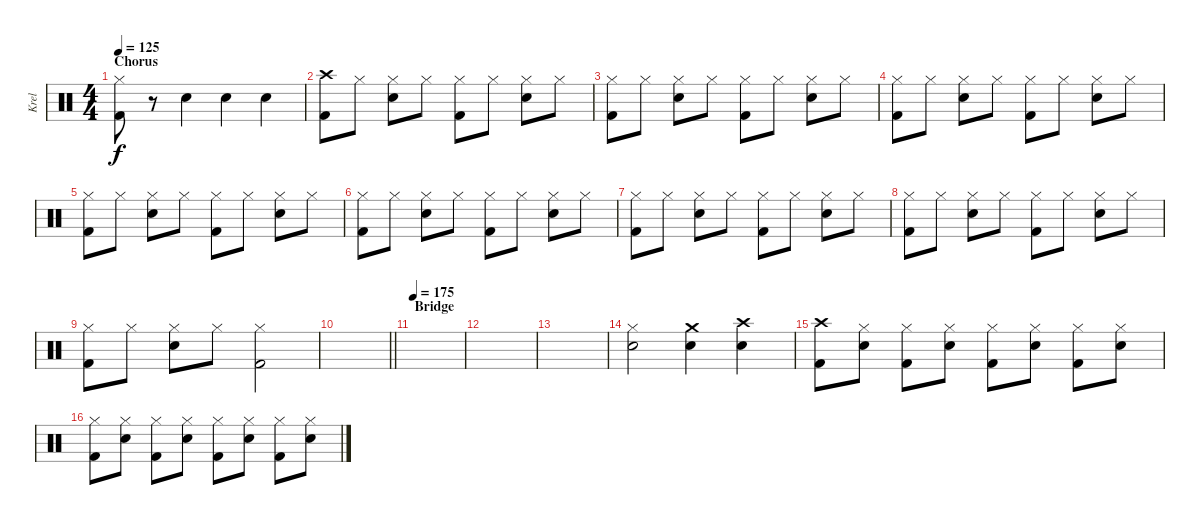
\track ("Krel" "Krel") {instrument percussion}
\staff {score}
\articulation defaults
\ts (4 4)
\section ("" "Chorus")
\tempo 125
\clef neutral
\ks c
("Hi-Hat (closed)" "Kick (hit) 2").8{dy f} r.8 "Snare (hit) 2".4 "Snare (hit) 2".4 "Snare (hit) 2".4 |
("Crash high (hit)" "Kick (hit) 2").8 "Hi-Hat (closed)".8 ("Hi-Hat (closed)" "Snare (hit) 2").8 "Hi-Hat (closed)".8 ("Hi-Hat (closed)" "Kick (hit) 2").8 "Hi-Hat (closed)".8 ("Hi-Hat (closed)" "Snare (hit) 2").8 "Hi-Hat (closed)".8 |
("Hi-Hat (closed)" "Kick (hit) 2").8 "Hi-Hat (closed)".8 ("Hi-Hat (closed)" "Snare (hit) 2").8 "Hi-Hat (closed)".8 ("Hi-Hat (closed)" "Kick (hit) 2").8 "Hi-Hat (closed)".8 ("Hi-Hat (closed)" "Snare (hit) 2").8 "Hi-Hat (closed)".8 |
("Hi-Hat (closed)" "Kick (hit) 2").8 "Hi-Hat (closed)".8 ("Hi-Hat (closed)" "Snare (hit) 2").8 "Hi-Hat (closed)".8 ("Hi-Hat (closed)" "Kick (hit) 2").8 "Hi-Hat (closed)".8 ("Hi-Hat (closed)" "Snare (hit) 2").8 "Hi-Hat (closed)".8 |
("Hi-Hat (closed)" "Kick (hit) 2").8 "Hi-Hat (closed)".8 ("Hi-Hat (closed)" "Snare (hit) 2").8 "Hi-Hat (closed)".8 ("Hi-Hat (closed)" "Kick (hit) 2").8 "Hi-Hat (closed)".8 ("Hi-Hat (closed)" "Snare (hit) 2").8 "Hi-Hat (closed)".8 |
("Hi-Hat (closed)" "Kick (hit) 2").8 "Hi-Hat (closed)".8 ("Hi-Hat (closed)" "Snare (hit) 2").8 "Hi-Hat (closed)".8 ("Hi-Hat (closed)" "Kick (hit) 2").8 "Hi-Hat (closed)".8 ("Hi-Hat (closed)" "Snare (hit) 2").8 "Hi-Hat (closed)".8 |
("Hi-Hat (closed)" "Kick (hit) 2").8 "Hi-Hat (closed)".8 ("Hi-Hat (closed)" "Snare (hit) 2").8 "Hi-Hat (closed)".8 ("Hi-Hat (closed)" "Kick (hit) 2").8 "Hi-Hat (closed)".8 ("Hi-Hat (closed)" "Snare (hit) 2").8 "Hi-Hat (closed)".8 |
("Hi-Hat (closed)" "Kick (hit) 2").8 "Hi-Hat (closed)".8 ("Hi-Hat (closed)" "Snare (hit) 2").8 "Hi-Hat (closed)".8 ("Hi-Hat (closed)" "Kick (hit) 2").8 "Hi-Hat (closed)".8 ("Hi-Hat (closed)" "Snare (hit) 2").8 "Hi-Hat (closed)".8 |
("Hi-Hat (closed)" "Kick (hit) 2").8 "Hi-Hat (closed)".8 ("Hi-Hat (closed)" "Snare (hit) 2").8 "Hi-Hat (closed)".8 ("Hi-Hat (closed)" "Kick (hit) 2").2 |
\barLineRight lightlight
|
\section ("" "Bridge")
\tempo 175
|
|
|
("Hi-Hat (closed)" "Snare (hit) 2").2 ("Crash medium (hit)" "Snare (hit) 2").4 ("Crash high (hit)" "Snare (hit) 2").4 |
("Crash high (hit)" "Kick (hit) 2").8 ("Hi-Hat (closed)" "Snare (hit) 2").8 ("Hi-Hat (closed)" "Kick (hit) 2").8 ("Hi-Hat (closed)" "Snare (hit) 2").8 ("Hi-Hat (closed)" "Kick (hit) 2").8 ("Hi-Hat (closed)" "Snare (hit) 2").8 ("Hi-Hat (closed)" "Kick (hit) 2").8 ("Hi-Hat (closed)" "Snare (hit) 2").8 |
("Hi-Hat (closed)" "Kick (hit) 2").8 ("Hi-Hat (closed)" "Snare (hit) 2").8 ("Hi-Hat (closed)" "Kick (hit) 2").8 ("Hi-Hat (closed)" "Snare (hit) 2").8 ("Hi-Hat (closed)" "Kick (hit) 2").8 ("Hi-Hat (closed)" "Snare (hit) 2").8 ("Hi-Hat (closed)" "Kick (hit) 2").8 ("Hi-Hat (closed)" "Snare (hit) 2").8
